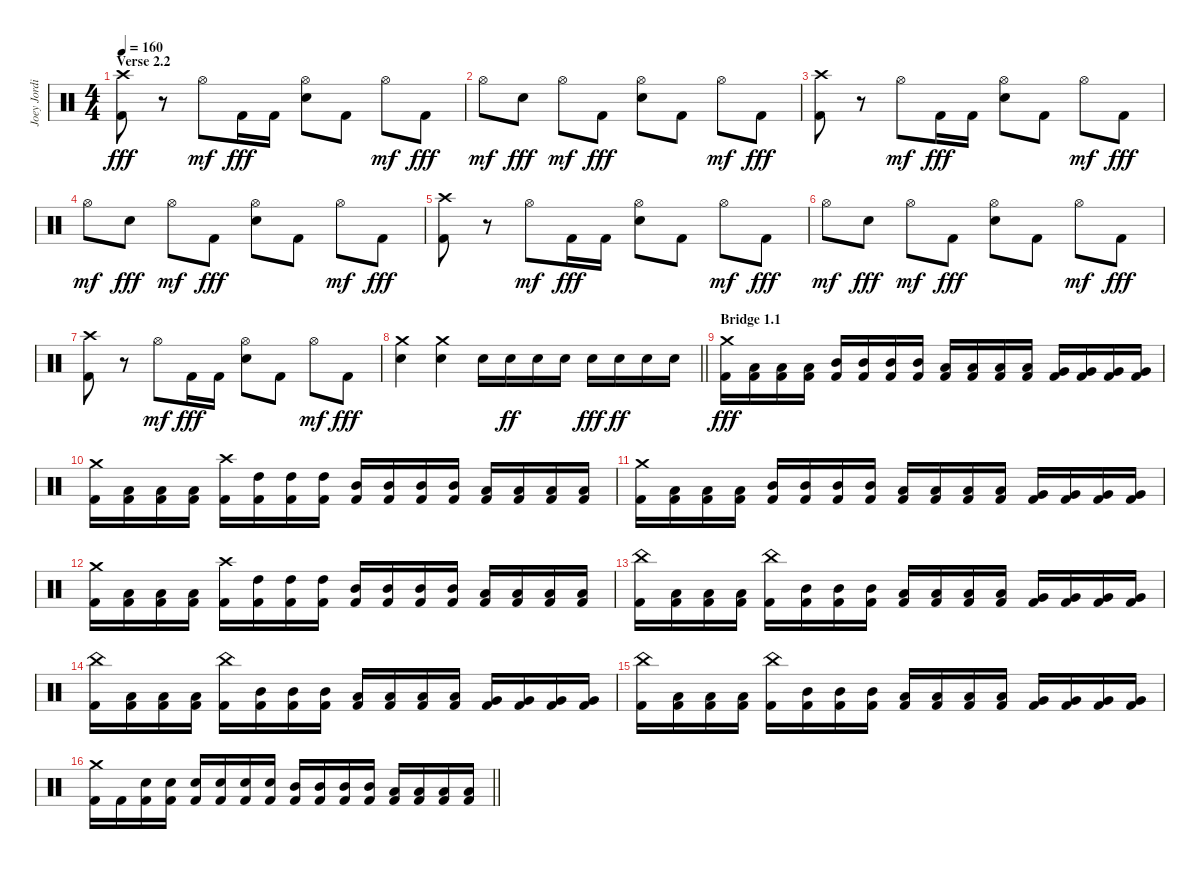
\track ("Joey Jordison" "Joey Jordi") {instrument percussion}
\staff {score}
\articulation defaults
\ts (4 4)
\section ("" "Verse 2.2")
\tempo 160
\clef neutral
\ks c
("Crash high (hit)" "Kick (hit) 2").8{dy fff} r.8 "Hi-Hat (open)".8{dy mf} "Kick (hit) 2".16{dy fff} "Kick (hit) 2".16 ("Hi-Hat (open)" "Electric Snare (hit)").8 "Kick (hit) 2".8 "Hi-Hat (open)".8{dy mf} "Kick (hit) 2".8{dy fff} |
"Hi-Hat (open)".8{dy mf} "Electric Snare (hit)".8{dy fff} "Hi-Hat (open)".8{dy mf} "Kick (hit) 2".8{dy fff} ("Hi-Hat (open)" "Electric Snare (hit)").8 "Kick (hit) 2".8 "Hi-Hat (open)".8{dy mf} "Kick (hit) 2".8{dy fff} |
("Crash high (hit)" "Kick (hit) 2").8 r.8 "Hi-Hat (open)".8{dy mf} "Kick (hit) 2".16{dy fff} "Kick (hit) 2".16 ("Hi-Hat (open)" "Electric Snare (hit)").8 "Kick (hit) 2".8 "Hi-Hat (open)".8{dy mf} "Kick (hit) 2".8{dy fff} |
"Hi-Hat (open)".8{dy mf} "Electric Snare (hit)".8{dy fff} "Hi-Hat (open)".8{dy mf} "Kick (hit) 2".8{dy fff} ("Hi-Hat (open)" "Electric Snare (hit)").8 "Kick (hit) 2".8 "Hi-Hat (open)".8{dy mf} "Kick (hit) 2".8{dy fff} |
("Crash high (hit)" "Kick (hit) 2").8 r.8 "Hi-Hat (open)".8{dy mf} "Kick (hit) 2".16{dy fff} "Kick (hit) 2".16 ("Hi-Hat (open)" "Electric Snare (hit)").8 "Kick (hit) 2".8 "Hi-Hat (open)".8{dy mf} "Kick (hit) 2".8{dy fff} |
"Hi-Hat (open)".8{dy mf} "Electric Snare (hit)".8{dy fff} "Hi-Hat (open)".8{dy mf} "Kick (hit) 2".8{dy fff} ("Hi-Hat (open)" "Electric Snare (hit)").8 "Kick (hit) 2".8 "Hi-Hat (open)".8{dy mf} "Kick (hit) 2".8{dy fff} |
("Crash high (hit)" "Kick (hit) 2").8 r.8 "Hi-Hat (open)".8{dy mf} "Kick (hit) 2".16{dy fff} "Kick (hit) 2".16 ("Hi-Hat (open)" "Electric Snare (hit)").8 "Kick (hit) 2".8 "Hi-Hat (open)".8{dy mf} "Kick (hit) 2".8{dy fff} |
\barLineRight lightlight
("Crash medium (hit)" "Electric Snare (hit)").4 ("Crash medium (hit)" "Electric Snare (hit)").4 "Electric Snare (hit)".16 "Electric Snare (hit)".16{dy ff} "Electric Snare (hit)".16 "Electric Snare (hit)".16 "Electric Snare (hit)".16{dy fff} "Electric Snare (hit)".16{dy ff} "Electric Snare (hit)".16 "Electric Snare (hit)".16 |
\section ("" "Bridge 1.1")
("Crash medium (hit)" "Kick (hit) 2").16{dy fff} ("Low Tom (hit)" "Kick (hit) 2").16 ("Low Tom (hit)" "Kick (hit) 2").16 ("Low Tom (hit)" "Kick (hit) 2").16 ("Mid Tom (hit)" "Kick (hit) 2").16 ("Mid Tom (hit)" "Kick (hit) 2").16 ("Mid Tom (hit)" "Kick (hit) 2").16 ("Mid Tom (hit)" "Kick (hit) 2").16 ("Low Tom (hit)" "Kick (hit) 2").16 ("Low Tom (hit)" "Kick (hit) 2").16 ("Low Tom (hit)" "Kick (hit) 2").16 ("Low Tom (hit)" "Kick (hit) 2").16 ("Very Low Tom (hit)" "Kick (hit) 2").16 ("Very Low Tom (hit)" "Kick (hit) 2").16 ("Very Low Tom (hit)" "Kick (hit) 2").16 ("Very Low Tom (hit)" "Kick (hit) 2").16 |
("Crash medium (hit)" "Kick (hit) 2").16 ("Low Tom (hit)" "Kick (hit) 2").16 ("Low Tom (hit)" "Kick (hit) 2").16 ("Low Tom (hit)" "Kick (hit) 2").16 ("Crash high (hit)" "Kick (hit) 2").16 ("High Tom (hit)" "Kick (hit) 2").16 ("High Tom (hit)" "Kick (hit) 2").16 ("High Tom (hit)" "Kick (hit) 2").16 ("Mid Tom (hit)" "Kick (hit) 2").16 ("Mid Tom (hit)" "Kick (hit) 2").16 ("Mid Tom (hit)" "Kick (hit) 2").16 ("Mid Tom (hit)" "Kick (hit) 2").16 ("Low Tom (hit)" "Kick (hit) 2").16 ("Low Tom (hit)" "Kick (hit) 2").16 ("Low Tom (hit)" "Kick (hit) 2").16 ("Low Tom (hit)" "Kick (hit) 2").16 |
("Crash medium (hit)" "Kick (hit) 2").16 ("Low Tom (hit)" "Kick (hit) 2").16 ("Low Tom (hit)" "Kick (hit) 2").16 ("Low Tom (hit)" "Kick (hit) 2").16 ("Mid Tom (hit)" "Kick (hit) 2").16 ("Mid Tom (hit)" "Kick (hit) 2").16 ("Mid Tom (hit)" "Kick (hit) 2").16 ("Mid Tom (hit)" "Kick (hit) 2").16 ("Low Tom (hit)" "Kick (hit) 2").16 ("Low Tom (hit)" "Kick (hit) 2").16 ("Low Tom (hit)" "Kick (hit) 2").16 ("Low Tom (hit)" "Kick (hit) 2").16 ("Very Low Tom (hit)" "Kick (hit) 2").16 ("Very Low Tom (hit)" "Kick (hit) 2").16 ("Very Low Tom (hit)" "Kick (hit) 2").16 ("Very Low Tom (hit)" "Kick (hit) 2").16 |
("Crash medium (hit)" "Kick (hit) 2").16 ("Low Tom (hit)" "Kick (hit) 2").16 ("Low Tom (hit)" "Kick (hit) 2").16 ("Low Tom (hit)" "Kick (hit) 2").16 ("Crash high (hit)" "Kick (hit) 2").16 ("High Tom (hit)" "Kick (hit) 2").16 ("High Tom (hit)" "Kick (hit) 2").16 ("High Tom (hit)" "Kick (hit) 2").16 ("Mid Tom (hit)" "Kick (hit) 2").16 ("Mid Tom (hit)" "Kick (hit) 2").16 ("Mid Tom (hit)" "Kick (hit) 2").16 ("Mid Tom (hit)" "Kick (hit) 2").16 ("Low Tom (hit)" "Kick (hit) 2").16 ("Low Tom (hit)" "Kick (hit) 2").16 ("Low Tom (hit)" "Kick (hit) 2").16 ("Low Tom (hit)" "Kick (hit) 2").16 |
("China (hit)" "Kick (hit) 2").16 ("Low Tom (hit)" "Kick (hit) 2").16 ("Low Tom (hit)" "Kick (hit) 2").16 ("Low Tom (hit)" "Kick (hit) 2").16 ("China (hit)" "Kick (hit) 2").16 ("Mid Tom (hit)" "Kick (hit) 2").16 ("Mid Tom (hit)" "Kick (hit) 2").16 ("Mid Tom (hit)" "Kick (hit) 2").16 ("Low Tom (hit)" "Kick (hit) 2").16 ("Low Tom (hit)" "Kick (hit) 2").16 ("Low Tom (hit)" "Kick (hit) 2").16 ("Low Tom (hit)" "Kick (hit) 2").16 ("Very Low Tom (hit)" "Kick (hit) 2").16 ("Very Low Tom (hit)" "Kick (hit) 2").16 ("Very Low Tom (hit)" "Kick (hit) 2").16 ("Very Low Tom (hit)" "Kick (hit) 2").16 |
("China (hit)" "Kick (hit) 2").16 ("Low Tom (hit)" "Kick (hit) 2").16 ("Low Tom (hit)" "Kick (hit) 2").16 ("Low Tom (hit)" "Kick (hit) 2").16 ("China (hit)" "Kick (hit) 2").16 ("Mid Tom (hit)" "Kick (hit) 2").16 ("Mid Tom (hit)" "Kick (hit) 2").16 ("Mid Tom (hit)" "Kick (hit) 2").16 ("Low Tom (hit)" "Kick (hit) 2").16 ("Low Tom (hit)" "Kick (hit) 2").16 ("Low Tom (hit)" "Kick (hit) 2").16 ("Low Tom (hit)" "Kick (hit) 2").16 ("Very Low Tom (hit)" "Kick (hit) 2").16 ("Very Low Tom (hit)" "Kick (hit) 2").16 ("Very Low Tom (hit)" "Kick (hit) 2").16 ("Very Low Tom (hit)" "Kick (hit) 2").16 |
("China (hit)" "Kick (hit) 2").16 ("Low Tom (hit)" "Kick (hit) 2").16 ("Low Tom (hit)" "Kick (hit) 2").16 ("Low Tom (hit)" "Kick (hit) 2").16 ("China (hit)" "Kick (hit) 2").16 ("Mid Tom (hit)" "Kick (hit) 2").16 ("Mid Tom (hit)" "Kick (hit) 2").16 ("Mid Tom (hit)" "Kick (hit) 2").16 ("Low Tom (hit)" "Kick (hit) 2").16 ("Low Tom (hit)" "Kick (hit) 2").16 ("Low Tom (hit)" "Kick (hit) 2").16 ("Low Tom (hit)" "Kick (hit) 2").16 ("Very Low Tom (hit)" "Kick (hit) 2").16 ("Very Low Tom (hit)" "Kick (hit) 2").16 ("Very Low Tom (hit)" "Kick (hit) 2").16 ("Very Low Tom (hit)" "Kick (hit) 2").16 |
\barLineRight lightlight
("Crash medium (hit)" "Kick (hit) 2").16 "Kick (hit) 2".16 ("Electric Snare (hit)" "Kick (hit) 2").16 ("Electric Snare (hit)" "Kick (hit) 2").16 ("Electric Snare (hit)" "Kick (hit) 2").16 ("Electric Snare (hit)" "Kick (hit) 2").16 ("Electric Snare (hit)" "Kick (hit) 2").16 ("Electric Snare (hit)" "Kick (hit) 2").16 ("Mid Tom (hit)" "Kick (hit) 2").16 ("Mid Tom (hit)" "Kick (hit) 2").16 ("Mid Tom (hit)" "Kick (hit) 2").16 ("Mid Tom (hit)" "Kick (hit) 2").16 ("Low Tom (hit)" "Kick (hit) 2").16 ("Low Tom (hit)" "Kick (hit) 2").16 ("Low Tom (hit)" "Kick (hit) 2").16 ("Low Tom (hit)" "Kick (hit) 2").16
